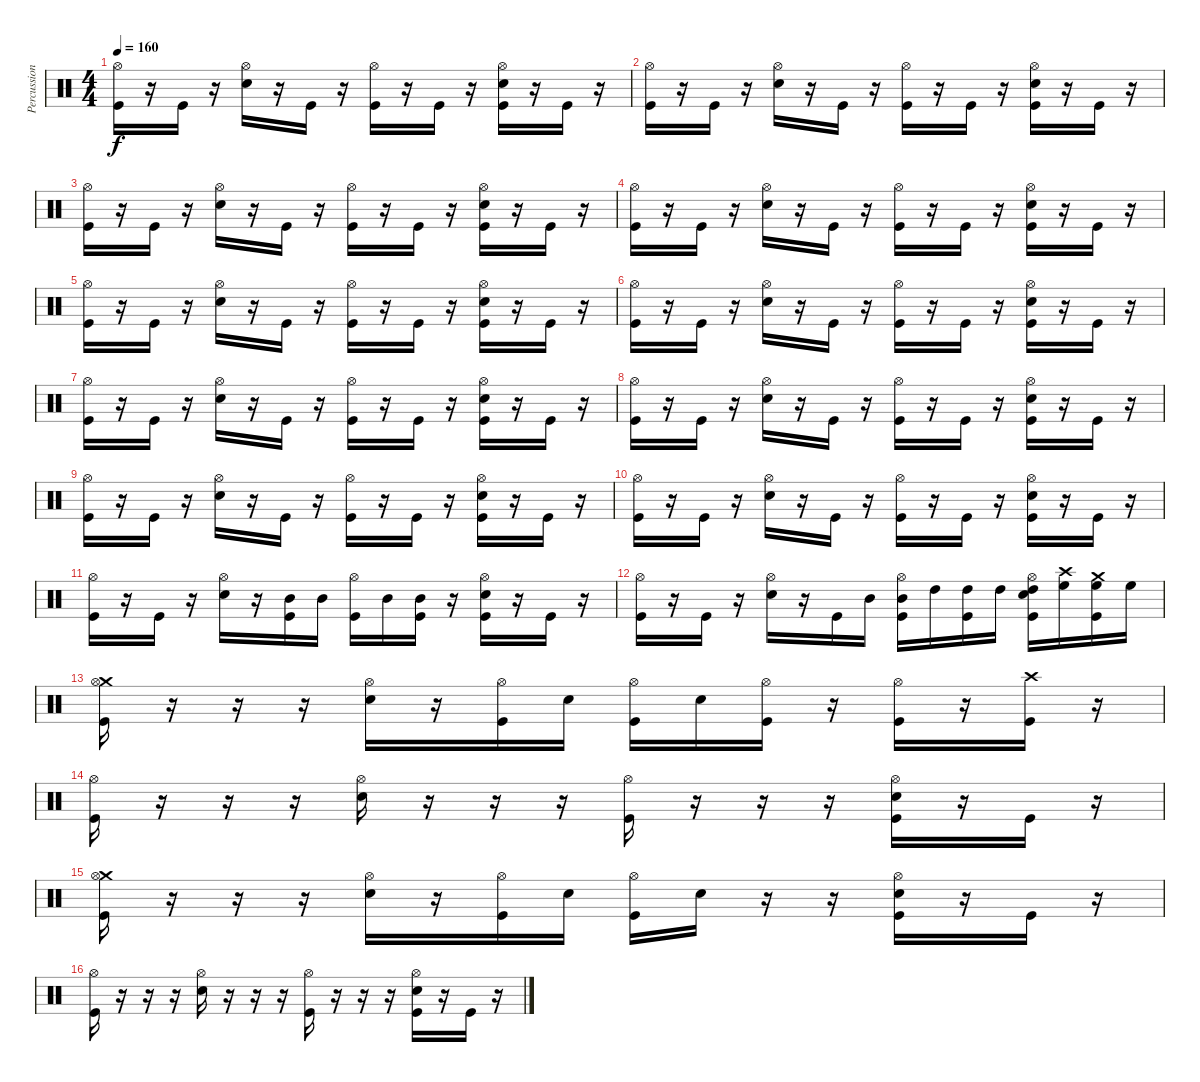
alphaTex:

\track ("Percussion" "Percussion") {instrument percussion}
\staff {score}
\articulation defaults
\ts (4 4)
\tempo 160
\clef neutral
\ks c
("Hi-Hat (open)" "Kick (hit)").16{dy f} r.16 "Kick (hit)".16 r.16 ("Snare (hit) 2" "Hi-Hat (open)").16 r.16 "Kick (hit)".16 r.16 ("Hi-Hat (open)" "Kick (hit)").16 r.16 "Kick (hit)".16 r.16 ("Snare (hit) 2" "Hi-Hat (open)" "Kick (hit)").16 r.16 "Kick (hit)".16 r.16 |
("Hi-Hat (open)" "Kick (hit)").16 r.16 "Kick (hit)".16 r.16 ("Snare (hit) 2" "Hi-Hat (open)").16 r.16 "Kick (hit)".16 r.16 ("Hi-Hat (open)" "Kick (hit)").16 r.16 "Kick (hit)".16 r.16 ("Snare (hit) 2" "Hi-Hat (open)" "Kick (hit)").16 r.16 "Kick (hit)".16 r.16 |
("Hi-Hat (open)" "Kick (hit)").16 r.16 "Kick (hit)".16 r.16 ("Snare (hit) 2" "Hi-Hat (open)").16 r.16 "Kick (hit)".16 r.16 ("Hi-Hat (open)" "Kick (hit)").16 r.16 "Kick (hit)".16 r.16 ("Snare (hit) 2" "Hi-Hat (open)" "Kick (hit)").16 r.16 "Kick (hit)".16 r.16 |
("Hi-Hat (open)" "Kick (hit)").16 r.16 "Kick (hit)".16 r.16 ("Snare (hit) 2" "Hi-Hat (open)").16 r.16 "Kick (hit)".16 r.16 ("Hi-Hat (open)" "Kick (hit)").16 r.16 "Kick (hit)".16 r.16 ("Snare (hit) 2" "Hi-Hat (open)" "Kick (hit)").16 r.16 "Kick (hit)".16 r.16 |
("Hi-Hat (open)" "Kick (hit)").16 r.16 "Kick (hit)".16 r.16 ("Snare (hit) 2" "Hi-Hat (open)").16 r.16 "Kick (hit)".16 r.16 ("Hi-Hat (open)" "Kick (hit)").16 r.16 "Kick (hit)".16 r.16 ("Snare (hit) 2" "Hi-Hat (open)" "Kick (hit)").16 r.16 "Kick (hit)".16 r.16 |
("Hi-Hat (open)" "Kick (hit)").16 r.16 "Kick (hit)".16 r.16 ("Snare (hit) 2" "Hi-Hat (open)").16 r.16 "Kick (hit)".16 r.16 ("Hi-Hat (open)" "Kick (hit)").16 r.16 "Kick (hit)".16 r.16 ("Snare (hit) 2" "Hi-Hat (open)" "Kick (hit)").16 r.16 "Kick (hit)".16 r.16 |
("Hi-Hat (open)" "Kick (hit)").16 r.16 "Kick (hit)".16 r.16 ("Snare (hit) 2" "Hi-Hat (open)").16 r.16 "Kick (hit)".16 r.16 ("Hi-Hat (open)" "Kick (hit)").16 r.16 "Kick (hit)".16 r.16 ("Snare (hit) 2" "Hi-Hat (open)" "Kick (hit)").16 r.16 "Kick (hit)".16 r.16 |
("Hi-Hat (open)" "Kick (hit)").16 r.16 "Kick (hit)".16 r.16 ("Snare (hit) 2" "Hi-Hat (open)").16 r.16 "Kick (hit)".16 r.16 ("Hi-Hat (open)" "Kick (hit)").16 r.16 "Kick (hit)".16 r.16 ("Snare (hit) 2" "Hi-Hat (open)" "Kick (hit)").16 r.16 "Kick (hit)".16 r.16 |
("Hi-Hat (open)" "Kick (hit)").16 r.16 "Kick (hit)".16 r.16 ("Snare (hit) 2" "Hi-Hat (open)").16 r.16 "Kick (hit)".16 r.16 ("Hi-Hat (open)" "Kick (hit)").16 r.16 "Kick (hit)".16 r.16 ("Snare (hit) 2" "Hi-Hat (open)" "Kick (hit)").16 r.16 "Kick (hit)".16 r.16 |
("Hi-Hat (open)" "Kick (hit)").16 r.16 "Kick (hit)".16 r.16 ("Snare (hit) 2" "Hi-Hat (open)").16 r.16 "Kick (hit)".16 r.16 ("Hi-Hat (open)" "Kick (hit)").16 r.16 "Kick (hit)".16 r.16 ("Snare (hit) 2" "Hi-Hat (open)" "Kick (hit)").16 r.16 "Kick (hit)".16 r.16 |
("Hi-Hat (open)" "Kick (hit)").16 r.16 "Kick (hit)".16 r.16 ("Snare (hit) 2" "Hi-Hat (open)").16 r.16 ("Mid Tom (hit)" "Kick (hit)").16 "Mid Tom (hit)".16 ("Hi-Hat (open)" "Kick (hit)").16 "Mid Tom (hit)".16 ("Mid Tom (hit)" "Kick (hit)").16 r.16 ("Snare (hit) 2" "Hi-Hat (open)" "Kick (hit)").16 r.16 "Kick (hit)".16 r.16 |
("Hi-Hat (open)" "Kick (hit)").16 r.16 "Kick (hit)".16 r.16 ("Snare (hit) 2" "Hi-Hat (open)").16 r.16 "Kick (hit)".16 "Mid Tom (hit)".16 ("Mid Tom (hit)" "Hi-Hat (open)" "Kick (hit)").16 "High Tom (hit)".16 ("High Tom (hit)" "Kick (hit)").16 "High Tom (hit)".16 ("High Tom (hit)" "Snare (hit) 2" "Hi-Hat (open)" "Kick (hit)").16 ("Crash high (hit)" "High Floor Tom (hit)").16 ("Crash medium (hit)" "High Floor Tom (hit)" "Kick (hit)").16 "High Floor Tom (hit)".16 |
("Crash medium (hit)" "Hi-Hat (open)" "Kick (hit)").16 r.16 r.16 r.16 ("Snare (hit) 2" "Hi-Hat (open)").16 r.16 ("Hi-Hat (open)" "Kick (hit)").16 "Snare (hit) 2".16 ("Hi-Hat (open)" "Kick (hit)").16 "Snare (hit) 2".16 ("Hi-Hat (open)" "Kick (hit)").16 r.16 ("Hi-Hat (open)" "Kick (hit)").16 r.16 ("Crash high (hit)" "Kick (hit)").16 r.16 |
("Hi-Hat (open)" "Kick (hit)").16 r.16 r.16 r.16 ("Snare (hit) 2" "Hi-Hat (open)").16 r.16 r.16 r.16 ("Hi-Hat (open)" "Kick (hit)").16 r.16 r.16 r.16 ("Snare (hit) 2" "Hi-Hat (open)" "Kick (hit)").16 r.16 "Kick (hit)".16 r.16 |
("Crash medium (hit)" "Hi-Hat (open)" "Kick (hit)").16 r.16 r.16 r.16 ("Snare (hit) 2" "Hi-Hat (open)").16 r.16 ("Hi-Hat (open)" "Kick (hit)").16 "Snare (hit) 2".16 ("Hi-Hat (open)" "Kick (hit)").16 "Snare (hit) 2".16 r.16 r.16 ("Snare (hit) 2" "Hi-Hat (open)" "Kick (hit)").16 r.16 "Kick (hit)".16 r.16 |
("Hi-Hat (open)" "Kick (hit)").16 r.16 r.16 r.16 ("Snare (hit) 2" "Hi-Hat (open)").16 r.16 r.16 r.16 ("Hi-Hat (open)" "Kick (hit)").16 r.16 r.16 r.16 ("Snare (hit) 2" "Hi-Hat (open)" "Kick (hit)").16 r.16 "Kick (hit)".16 r.16
